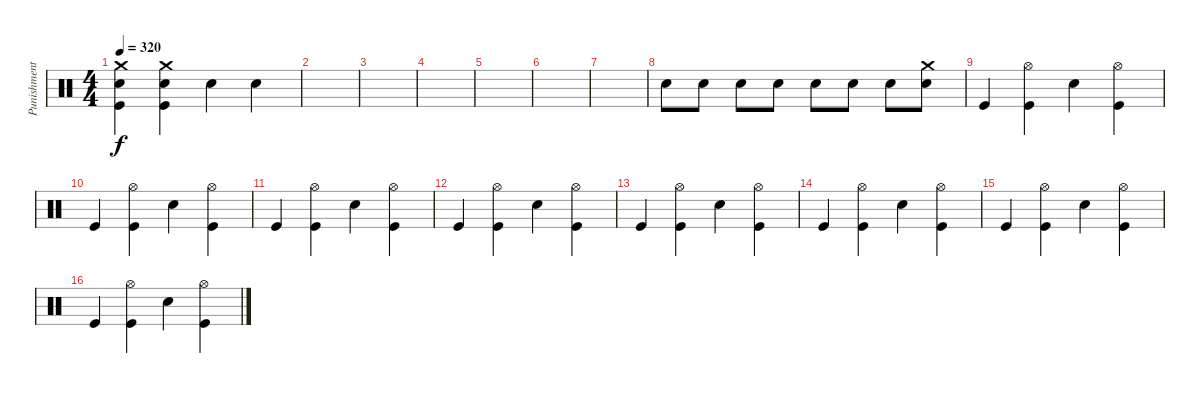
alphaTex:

\track ("Punishment" "Punishment") {instrument percussion}
\staff {score}
\articulation defaults
\ts (4 4)
\tempo 320
\clef neutral
\ks c
("Kick (hit)" "Electric Snare (hit)" "Crash medium (hit)").4{dy f} ("Kick (hit)" "Electric Snare (hit)" "Crash medium (hit)").4 "Snare (hit)"{x}.4 "Snare (hit)"{x}.4 |
|
|
|
|
|
|
"Electric Snare (hit)".8 "Electric Snare (hit)".8 "Electric Snare (hit)".8 "Electric Snare (hit)".8 "Electric Snare (hit)".8 "Electric Snare (hit)".8 "Electric Snare (hit)".8 ("Electric Snare (hit)" "Crash medium (hit)").8 |
"Kick (hit)".4 ("Kick (hit)" "Hi-Hat (open)").4 "Electric Snare (hit)".4 ("Kick (hit)" "Hi-Hat (open)").4 |
"Kick (hit)".4 ("Kick (hit)" "Hi-Hat (open)").4 "Electric Snare (hit)".4 ("Kick (hit)" "Hi-Hat (open)").4 |
"Kick (hit)".4 ("Kick (hit)" "Hi-Hat (open)").4 "Electric Snare (hit)".4 ("Kick (hit)" "Hi-Hat (open)").4 |
"Kick (hit)".4 ("Kick (hit)" "Hi-Hat (open)").4 "Electric Snare (hit)".4 ("Kick (hit)" "Hi-Hat (open)").4 |
"Kick (hit)".4 ("Kick (hit)" "Hi-Hat (open)").4 "Electric Snare (hit)".4 ("Kick (hit)" "Hi-Hat (open)").4 |
"Kick (hit)".4 ("Kick (hit)" "Hi-Hat (open)").4 "Electric Snare (hit)".4 ("Kick (hit)" "Hi-Hat (open)").4 |
"Kick (hit)".4 ("Kick (hit)" "Hi-Hat (open)").4 "Electric Snare (hit)".4 ("Kick (hit)" "Hi-Hat (open)").4 |
"Kick (hit)".4 ("Kick (hit)" "Hi-Hat (open)").4 "Electric Snare (hit)".4 ("Kick (hit)" "Hi-Hat (open)").4
